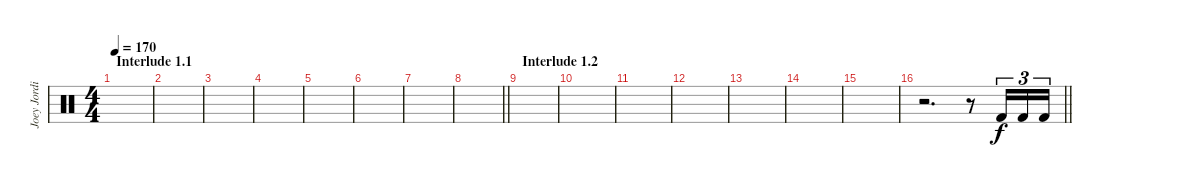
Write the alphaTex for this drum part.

\track ("Joey Jordison" "Joey Jordi") {instrument percussion}
\staff {score}
\articulation defaults
\ts (4 4)
\section ("" "Interlude 1.1")
\tempo 170
\clef neutral
\ks c
|
|
|
|
|
|
|
\barLineRight lightlight
|
\section ("" "Interlude 1.2")
|
|
|
|
|
|
|
\barLineRight lightlight
r.2{d} r.8 "Kick (hit) 2".16{tu (3 2)} "Kick (hit) 2".16{tu (3 2)} "Kick (hit) 2".16{tu (3 2)}
